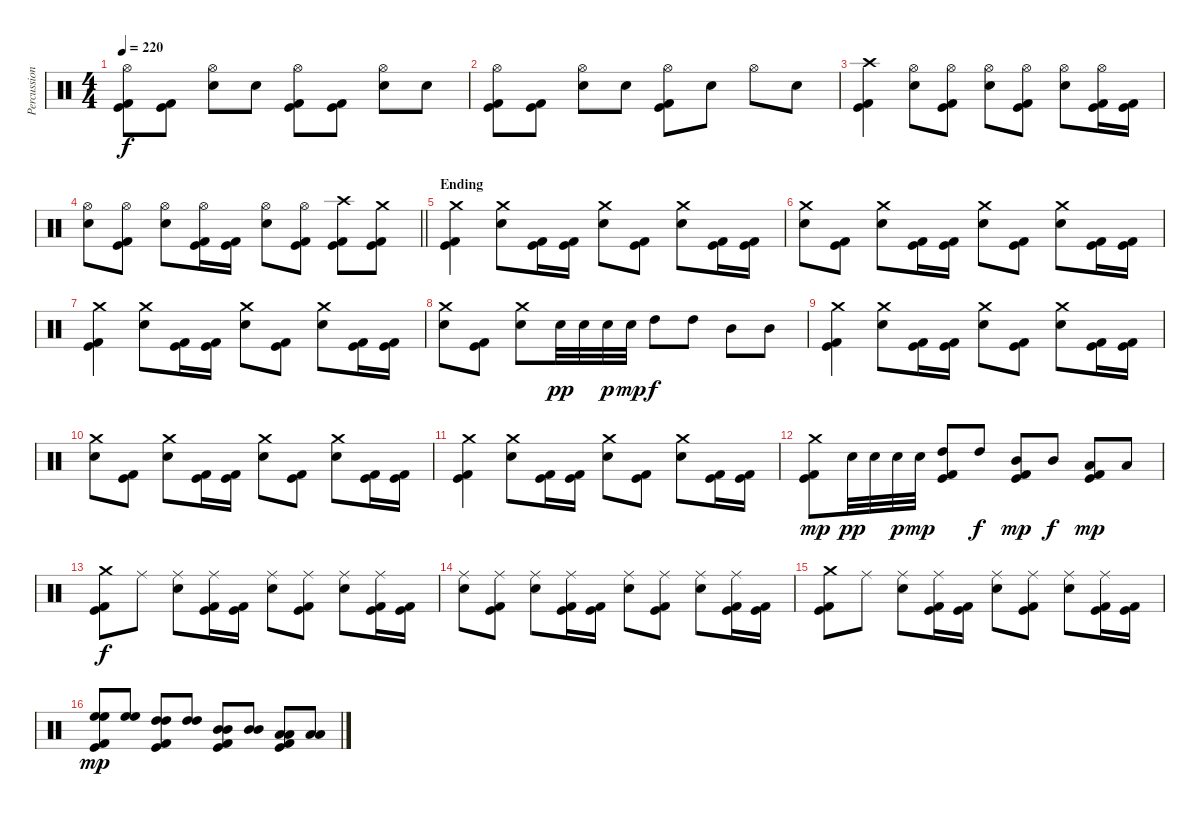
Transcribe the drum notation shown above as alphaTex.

\track ("Percussion" "Percussion") {instrument percussion}
\staff {score}
\articulation defaults
\ts (4 4)
\tempo 220
\clef neutral
\ks c
("Hi-Hat (open)" "Kick (hit)" "Kick (hit) 2").8{dy f} ("Kick (hit)" "Kick (hit) 2").8 ("Hi-Hat (open)" "Electric Snare (hit)").8 "Electric Snare (hit)".8 ("Hi-Hat (open)" "Kick (hit)" "Kick (hit) 2").8 ("Kick (hit)" "Kick (hit) 2").8 ("Hi-Hat (open)" "Electric Snare (hit)").8 "Electric Snare (hit)".8 |
("Hi-Hat (open)" "Kick (hit)" "Kick (hit) 2").8 ("Kick (hit)" "Kick (hit) 2").8 ("Hi-Hat (open)" "Electric Snare (hit)").8 "Electric Snare (hit)".8 ("Hi-Hat (open)" "Kick (hit)" "Kick (hit) 2").8 "Electric Snare (hit)".8 "Hi-Hat (open)".8 "Electric Snare (hit)".8 |
("Crash high (hit)" "Kick (hit)" "Kick (hit) 2").4 ("Hi-Hat (open)" "Electric Snare (hit)").8 ("Hi-Hat (open)" "Kick (hit)" "Kick (hit) 2").8 ("Hi-Hat (open)" "Electric Snare (hit)").8 ("Hi-Hat (open)" "Kick (hit)" "Kick (hit) 2").8 ("Hi-Hat (open)" "Electric Snare (hit)").8 ("Hi-Hat (open)" "Kick (hit)" "Kick (hit) 2").16 ("Kick (hit)" "Kick (hit) 2").16 |
\barLineRight lightlight
("Hi-Hat (open)" "Electric Snare (hit)").8 ("Hi-Hat (open)" "Kick (hit)" "Kick (hit) 2").8 ("Hi-Hat (open)" "Electric Snare (hit)").8 ("Hi-Hat (open)" "Kick (hit)" "Kick (hit) 2").16 ("Kick (hit)" "Kick (hit) 2").16 ("Hi-Hat (open)" "Electric Snare (hit)").8 ("Hi-Hat (open)" "Kick (hit)" "Kick (hit) 2").8 ("Crash high (hit)" "Kick (hit)" "Kick (hit) 2").8 ("Crash medium (hit)" "Kick (hit)" "Kick (hit) 2").8 |
\section ("" "Ending")
("Crash medium (hit)" "Kick (hit)" "Kick (hit) 2").4 ("Crash medium (hit)" "Electric Snare (hit)").8 ("Kick (hit)" "Kick (hit) 2").16 ("Kick (hit)" "Kick (hit) 2").16 ("Crash medium (hit)" "Electric Snare (hit)").8 ("Kick (hit)" "Kick (hit) 2").8 ("Crash medium (hit)" "Electric Snare (hit)").8 ("Kick (hit)" "Kick (hit) 2").16 ("Kick (hit)" "Kick (hit) 2").16 |
("Crash medium (hit)" "Electric Snare (hit)").8 ("Kick (hit)" "Kick (hit) 2").8 ("Crash medium (hit)" "Electric Snare (hit)").8 ("Kick (hit)" "Kick (hit) 2").16 ("Kick (hit)" "Kick (hit) 2").16 ("Crash medium (hit)" "Electric Snare (hit)").8 ("Kick (hit)" "Kick (hit) 2").8 ("Crash medium (hit)" "Electric Snare (hit)").8 ("Kick (hit)" "Kick (hit) 2").16 ("Kick (hit)" "Kick (hit) 2").16 |
("Crash medium (hit)" "Kick (hit)" "Kick (hit) 2").4 ("Crash medium (hit)" "Electric Snare (hit)").8 ("Kick (hit)" "Kick (hit) 2").16 ("Kick (hit)" "Kick (hit) 2").16 ("Crash medium (hit)" "Electric Snare (hit)").8 ("Kick (hit)" "Kick (hit) 2").8 ("Crash medium (hit)" "Electric Snare (hit)").8 ("Kick (hit)" "Kick (hit) 2").16 ("Kick (hit)" "Kick (hit) 2").16 |
("Crash medium (hit)" "Electric Snare (hit)").8 ("Kick (hit)" "Kick (hit) 2").8 ("Crash medium (hit)" "Electric Snare (hit)").8 "Electric Snare (hit)".32{dy pp} "Electric Snare (hit)".32 "Electric Snare (hit)".32{dy p} "Electric Snare (hit)".32{dy mp} "High Tom (hit)".8{dy f} "High Tom (hit)".8 "Mid Tom (hit)".8 "Mid Tom (hit)".8 |
("Crash medium (hit)" "Kick (hit)" "Kick (hit) 2").4 ("Crash medium (hit)" "Electric Snare (hit)").8 ("Kick (hit)" "Kick (hit) 2").16 ("Kick (hit)" "Kick (hit) 2").16 ("Crash medium (hit)" "Electric Snare (hit)").8 ("Kick (hit)" "Kick (hit) 2").8 ("Crash medium (hit)" "Electric Snare (hit)").8 ("Kick (hit)" "Kick (hit) 2").16 ("Kick (hit)" "Kick (hit) 2").16 |
("Crash medium (hit)" "Electric Snare (hit)").8 ("Kick (hit)" "Kick (hit) 2").8 ("Crash medium (hit)" "Electric Snare (hit)").8 ("Kick (hit)" "Kick (hit) 2").16 ("Kick (hit)" "Kick (hit) 2").16 ("Crash medium (hit)" "Electric Snare (hit)").8 ("Kick (hit)" "Kick (hit) 2").8 ("Crash medium (hit)" "Electric Snare (hit)").8 ("Kick (hit)" "Kick (hit) 2").16 ("Kick (hit)" "Kick (hit) 2").16 |
("Crash medium (hit)" "Kick (hit)" "Kick (hit) 2").4 ("Crash medium (hit)" "Electric Snare (hit)").8 ("Kick (hit)" "Kick (hit) 2").16 ("Kick (hit)" "Kick (hit) 2").16 ("Crash medium (hit)" "Electric Snare (hit)").8 ("Kick (hit)" "Kick (hit) 2").8 ("Crash medium (hit)" "Electric Snare (hit)").8 ("Kick (hit)" "Kick (hit) 2").16 ("Kick (hit)" "Kick (hit) 2").16 |
("Crash medium (hit)" "Kick (hit)" "Kick (hit) 2").8{dy mp} "Electric Snare (hit)".32{dy pp} "Electric Snare (hit)".32 "Electric Snare (hit)".32{dy p} "Electric Snare (hit)".32{dy mp} ("High Tom (hit)" "Kick (hit)" "Kick (hit) 2").8 "High Tom (hit)".8{dy f} ("Mid Tom (hit)" "Kick (hit)" "Kick (hit) 2").8{dy mp} "Mid Tom (hit)".8{dy f} ("Low Tom (hit)" "Kick (hit)" "Kick (hit) 2").8{dy mp} "Low Tom (hit)".8 |
("Crash medium (hit)" "Kick (hit)" "Kick (hit) 2").8{dy f} "Ride (middle)".8 ("Ride (middle)" "Electric Snare (hit)").8 ("Ride (middle)" "Kick (hit)" "Kick (hit) 2").16 ("Kick (hit)" "Kick (hit) 2").16 ("Ride (middle)" "Electric Snare (hit)").8 ("Ride (middle)" "Kick (hit)" "Kick (hit) 2").8 ("Ride (middle)" "Electric Snare (hit)").8 ("Ride (middle)" "Kick (hit)" "Kick (hit) 2").16 ("Kick (hit)" "Kick (hit) 2").16 |
("Ride (middle)" "Electric Snare (hit)").8 ("Ride (middle)" "Kick (hit)" "Kick (hit) 2").8 ("Ride (middle)" "Electric Snare (hit)").8 ("Ride (middle)" "Kick (hit)" "Kick (hit) 2").16 ("Kick (hit)" "Kick (hit) 2").16 ("Ride (middle)" "Electric Snare (hit)").8 ("Ride (middle)" "Kick (hit)" "Kick (hit) 2").8 ("Ride (middle)" "Electric Snare (hit)").8 ("Ride (middle)" "Kick (hit)" "Kick (hit) 2").16 ("Kick (hit)" "Kick (hit) 2").16 |
("Crash medium (hit)" "Kick (hit)" "Kick (hit) 2").8 "Ride (middle)".8 ("Ride (middle)" "Electric Snare (hit)").8 ("Ride (middle)" "Kick (hit)" "Kick (hit) 2").16 ("Kick (hit)" "Kick (hit) 2").16 ("Ride (middle)" "Electric Snare (hit)").8 ("Ride (middle)" "Kick (hit)" "Kick (hit) 2").8 ("Ride (middle)" "Electric Snare (hit)").8 ("Ride (middle)" "Kick (hit)" "Kick (hit) 2").16 ("Kick (hit)" "Kick (hit) 2").16 |
("High Floor Tom (hit)" "High Floor Tom (hit)" "Kick (hit)" "Kick (hit) 2").8{dy mp} ("High Floor Tom (hit)" "High Floor Tom (hit)").8 ("High Tom (hit)" "High Tom (hit)" "Kick (hit)" "Kick (hit) 2").8 ("High Tom (hit)" "High Tom (hit)").8 ("Mid Tom (hit)" "Mid Tom (hit)" "Kick (hit)" "Kick (hit) 2").8 ("Mid Tom (hit)" "Mid Tom (hit)").8 ("Low Tom (hit)" "Low Tom (hit)" "Kick (hit)" "Kick (hit) 2").8 ("Low Tom (hit)" "Low Tom (hit)").8
